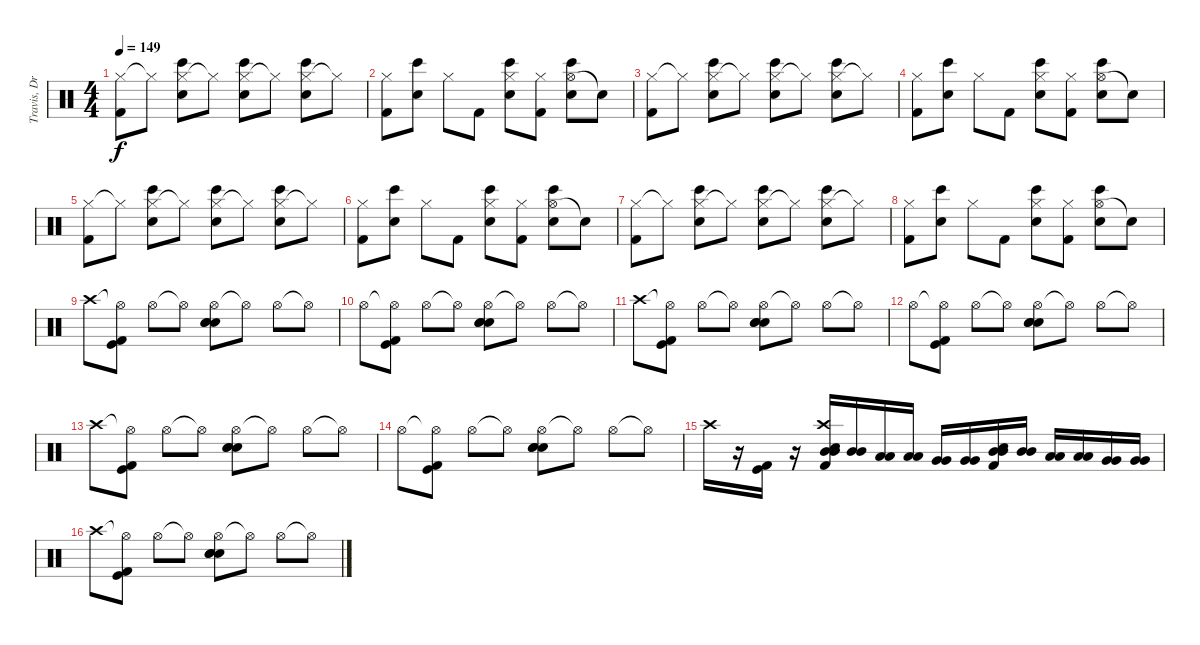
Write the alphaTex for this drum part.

\track ("Travis, Drums {Tabbed by Peter B.}" "Travis, Dr") {instrument percussion}
\staff {score}
\articulation defaults
\ts (4 4)
\tempo 149
\clef neutral
\ks c
("Hi-Hat (closed)" "Kick (hit) 2").8{dy f} "Hi-Hat (closed)"{t}.8 ("Hi-Hat (closed)" "Bongo High (hit)" "Snare (hit) 2").8 "Hi-Hat (closed)"{t}.8 ("Hi-Hat (closed)" "Bongo High (hit)" "Snare (hit) 2").8 "Hi-Hat (closed)"{t}.8 ("Hi-Hat (closed)" "Bongo High (hit)" "Snare (hit) 2").8 "Hi-Hat (closed)"{t}.8 |
("Hi-Hat (closed)" "Kick (hit) 2").8 ("Bongo High (hit)" "Snare (hit) 2").8 "Hi-Hat (closed)".8 "Kick (hit) 2".8 ("Hi-Hat (closed)" "Bongo High (hit)" "Snare (hit) 2").8 ("Hi-Hat (closed)" "Kick (hit) 2").8 ("Hi-Hat (open)" "Bongo High (hit)" "Snare (hit) 2").8 "Snare (hit)"{t}.8 |
("Hi-Hat (closed)" "Kick (hit) 2").8 "Hi-Hat (closed)"{t}.8 ("Hi-Hat (closed)" "Bongo High (hit)" "Snare (hit) 2").8 "Hi-Hat (closed)"{t}.8 ("Hi-Hat (closed)" "Bongo High (hit)" "Snare (hit) 2").8 "Hi-Hat (closed)"{t}.8 ("Hi-Hat (closed)" "Bongo High (hit)" "Snare (hit) 2").8 "Hi-Hat (closed)"{t}.8 |
("Hi-Hat (closed)" "Kick (hit) 2").8 ("Bongo High (hit)" "Snare (hit) 2").8 "Hi-Hat (closed)".8 "Kick (hit) 2".8 ("Hi-Hat (closed)" "Bongo High (hit)" "Snare (hit) 2").8 ("Hi-Hat (closed)" "Kick (hit) 2").8 ("Hi-Hat (open)" "Bongo High (hit)" "Snare (hit) 2").8 "Snare (hit)"{t}.8 |
("Hi-Hat (closed)" "Kick (hit) 2").8 "Hi-Hat (closed)"{t}.8 ("Hi-Hat (closed)" "Bongo High (hit)" "Snare (hit) 2").8 "Hi-Hat (closed)"{t}.8 ("Hi-Hat (closed)" "Bongo High (hit)" "Snare (hit) 2").8 "Hi-Hat (closed)"{t}.8 ("Hi-Hat (closed)" "Bongo High (hit)" "Snare (hit) 2").8 "Hi-Hat (closed)"{t}.8 |
("Hi-Hat (closed)" "Kick (hit) 2").8 ("Bongo High (hit)" "Snare (hit) 2").8 "Hi-Hat (closed)".8 "Kick (hit) 2".8 ("Hi-Hat (closed)" "Bongo High (hit)" "Snare (hit) 2").8 ("Hi-Hat (closed)" "Kick (hit) 2").8 ("Hi-Hat (open)" "Bongo High (hit)" "Snare (hit) 2").8 "Snare (hit)"{t}.8 |
("Hi-Hat (closed)" "Kick (hit) 2").8 "Hi-Hat (closed)"{t}.8 ("Hi-Hat (closed)" "Bongo High (hit)" "Snare (hit) 2").8 "Hi-Hat (closed)"{t}.8 ("Hi-Hat (closed)" "Bongo High (hit)" "Snare (hit) 2").8 "Hi-Hat (closed)"{t}.8 ("Hi-Hat (closed)" "Bongo High (hit)" "Snare (hit) 2").8 "Hi-Hat (closed)"{t}.8 |
("Hi-Hat (closed)" "Kick (hit) 2").8 ("Bongo High (hit)" "Snare (hit) 2").8 "Hi-Hat (closed)".8 "Kick (hit) 2".8 ("Hi-Hat (closed)" "Bongo High (hit)" "Snare (hit) 2").8 ("Hi-Hat (closed)" "Kick (hit) 2").8 ("Hi-Hat (open)" "Bongo High (hit)" "Snare (hit) 2").8 "Snare (hit)"{t}.8 |
"Crash high (hit)".8 ("Hi-Hat (open)"{t} "Kick (hit)" "Kick (hit) 2").8 "Hi-Hat (open)".8 "Hi-Hat (open)"{t}.8 ("Hi-Hat (open)" "Electric Snare (hit)" "Electric Snare (hit)" "Snare (hit) 2").8 "Hi-Hat (open)"{t}.8 "Hi-Hat (open)".8 "Hi-Hat (open)"{t}.8 |
"Hi-Hat (open)".8 ("Hi-Hat (open)"{t} "Kick (hit)" "Kick (hit) 2").8 "Hi-Hat (open)".8 "Hi-Hat (open)"{t}.8 ("Hi-Hat (open)" "Electric Snare (hit)" "Electric Snare (hit)" "Snare (hit) 2").8 "Hi-Hat (open)"{t}.8 "Hi-Hat (open)".8 "Hi-Hat (open)"{t}.8 |
"Crash high (hit)".8 ("Hi-Hat (open)"{t} "Kick (hit)" "Kick (hit) 2").8 "Hi-Hat (open)".8 "Hi-Hat (open)"{t}.8 ("Hi-Hat (open)" "Electric Snare (hit)" "Electric Snare (hit)" "Snare (hit) 2").8 "Hi-Hat (open)"{t}.8 "Hi-Hat (open)".8 "Hi-Hat (open)"{t}.8 |
"Hi-Hat (open)".8 ("Hi-Hat (open)"{t} "Kick (hit)" "Kick (hit) 2").8 "Hi-Hat (open)".8 "Hi-Hat (open)"{t}.8 ("Hi-Hat (open)" "Electric Snare (hit)" "Electric Snare (hit)" "Snare (hit) 2").8 "Hi-Hat (open)"{t}.8 "Hi-Hat (open)".8 "Hi-Hat (open)"{t}.8 |
"Crash high (hit)".8 ("Hi-Hat (open)"{t} "Kick (hit)" "Kick (hit) 2").8 "Hi-Hat (open)".8 "Hi-Hat (open)"{t}.8 ("Hi-Hat (open)" "Electric Snare (hit)" "Electric Snare (hit)" "Snare (hit) 2").8 "Hi-Hat (open)"{t}.8 "Hi-Hat (open)".8 "Hi-Hat (open)"{t}.8 |
"Hi-Hat (open)".8 ("Hi-Hat (open)"{t} "Kick (hit)" "Kick (hit) 2").8 "Hi-Hat (open)".8 "Hi-Hat (open)"{t}.8 ("Hi-Hat (open)" "Electric Snare (hit)" "Electric Snare (hit)" "Snare (hit) 2").8 "Hi-Hat (open)"{t}.8 "Hi-Hat (open)".8 "Hi-Hat (open)"{t}.8 |
"Crash high (hit)".16 r.16 ("Kick (hit)" "Kick (hit) 2").16 r.16 ("Crash high (hit)" "Mid Tom (hit)" "Mid Tom (hit)" "Electric Snare (hit)" "Kick (hit) 2").16 ("Mid Tom (hit)" "Mid Tom (hit)").16 ("Low Tom (hit)" "Low Tom (hit)").16 ("Low Tom (hit)" "Low Tom (hit)").16 ("Very Low Tom (hit)" "Very Low Tom (hit)").16 ("Very Low Tom (hit)" "Very Low Tom (hit)").16 ("Mid Tom (hit)" "Mid Tom (hit)" "Electric Snare (hit)" "Kick (hit) 2").16 ("Mid Tom (hit)" "Mid Tom (hit)").16 ("Low Tom (hit)" "Low Tom (hit)").16 ("Low Tom (hit)" "Low Tom (hit)").16 ("Very Low Tom (hit)" "Very Low Tom (hit)").16 ("Very Low Tom (hit)" "Very Low Tom (hit)").16 |
"Crash high (hit)".8 ("Hi-Hat (open)"{t} "Kick (hit)" "Kick (hit) 2").8 "Hi-Hat (open)".8 "Hi-Hat (open)"{t}.8 ("Hi-Hat (open)" "Electric Snare (hit)" "Electric Snare (hit)" "Snare (hit) 2").8 "Hi-Hat (open)"{t}.8 "Hi-Hat (open)".8 "Hi-Hat (open)"{t}.8
